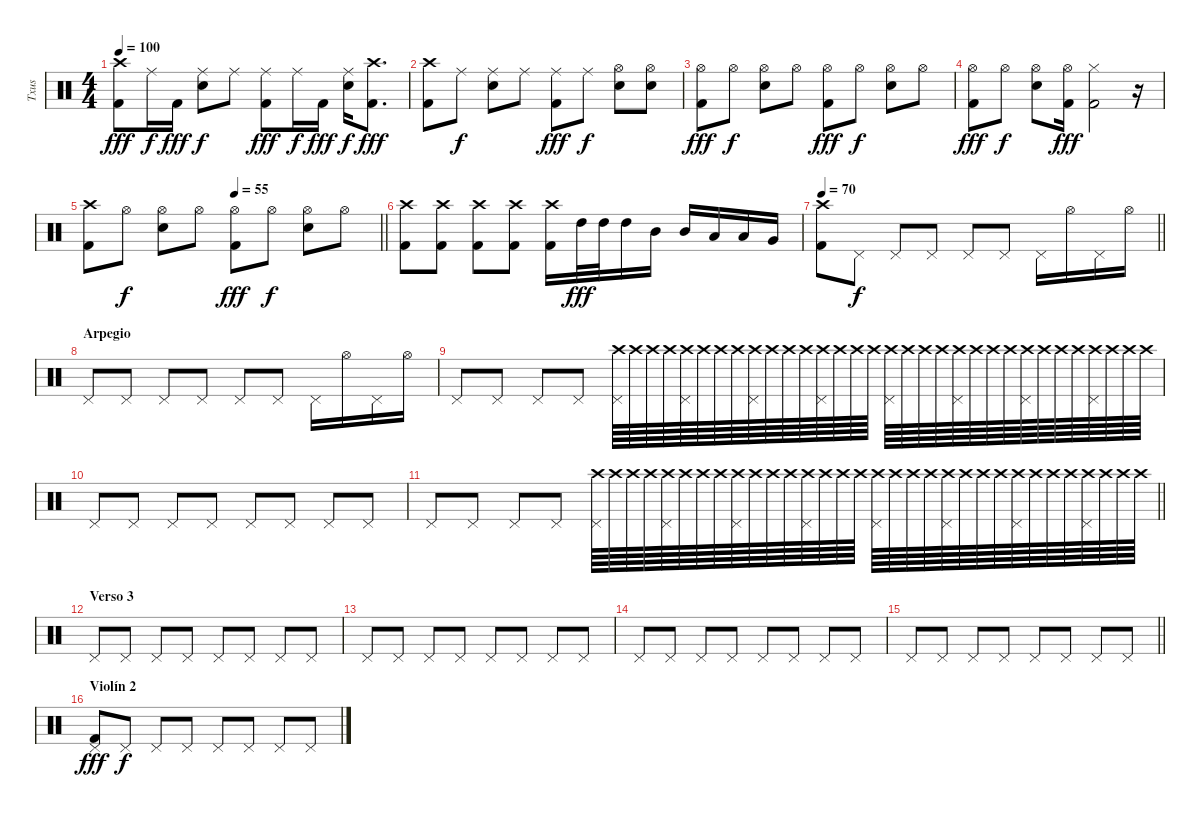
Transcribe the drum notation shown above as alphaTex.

\track ("Txus" "Txus") {instrument percussion}
\staff {score}
\articulation defaults
\ts (4 4)
\tempo 100
\clef neutral
\ks c
("Kick (hit) 2" "Crash high (hit)").8{dy fff} "Ride (middle)".16{dy f} "Kick (hit) 2".16{dy fff} ("Electric Snare (hit)" "Ride (middle)").8{dy f} "Ride (middle)".8 ("Kick (hit) 2" "Ride (middle)").8{dy fff} "Ride (middle)".16{dy f} "Kick (hit) 2".16{dy fff} ("Electric Snare (hit)" "Ride (middle)").16{dy f} ("Kick (hit) 2" "Crash high (hit)").8{d dy fff} |
("Kick (hit) 2" "Crash high (hit)").8 "Ride (middle)".8{dy f} ("Electric Snare (hit)" "Ride (middle)").8 "Ride (middle)".8 ("Kick (hit) 2" "Ride (middle)").8{dy fff} "Ride (middle)".8{dy f} ("Electric Snare (hit)" "Hi-Hat (open)").8 ("Electric Snare (hit)" "Hi-Hat (open)").8 |
("Kick (hit) 2" "Hi-Hat (open)").8{dy fff} "Hi-Hat (open)".8{dy f} ("Electric Snare (hit)" "Hi-Hat (open)").8 "Hi-Hat (open)".8 ("Kick (hit) 2" "Hi-Hat (open)").8{dy fff} "Hi-Hat (open)".8{dy f} ("Electric Snare (hit)" "Hi-Hat (open)").8 "Hi-Hat (open)".8 |
("Kick (hit) 2" "Hi-Hat (open)").8{dy fff} "Hi-Hat (open)".8{dy f} ("Electric Snare (hit)" "Hi-Hat (open)").8 ("Kick (hit) 2" "Hi-Hat (open)").16{dy fff} ("Kick (hit) 2" "Hi-Hat (closed)").2 r.16 |
\tempo (55 0.5)
\barLineRight lightlight
("Kick (hit) 2" "Crash high (hit)").8 "Hi-Hat (open)".8{dy f} ("Electric Snare (hit)" "Hi-Hat (open)").8 "Hi-Hat (open)".8 ("Kick (hit) 2" "Hi-Hat (open)").8{dy fff} "Hi-Hat (open)".8{dy f} ("Electric Snare (hit)" "Hi-Hat (open)").8 "Hi-Hat (open)".8 |
("Kick (hit) 2" "Crash high (hit)").8 ("Kick (hit) 2" "Crash high (hit)").8 ("Kick (hit) 2" "Crash high (hit)").8 ("Kick (hit) 2" "Crash high (hit)").8 ("Kick (hit) 2" "Crash high (hit)").16 "High Tom (hit)".32{dy fff} "High Tom (hit)".32 "High Tom (hit)".16 "Mid Tom (hit)".16 "Mid Tom (hit)".16 "Low Tom (hit)".16 "Low Tom (hit)".16 "Very Low Tom (hit)".16 |
\tempo 70
\barLineRight lightlight
("Kick (hit) 2" "Crash high (hit)").8 "Pedal Hi-Hat (hit)".8{dy f} "Pedal Hi-Hat (hit)".8 "Pedal Hi-Hat (hit)".8 "Pedal Hi-Hat (hit)".8 "Pedal Hi-Hat (hit)".8 "Pedal Hi-Hat (hit)".16 "Hi-Hat (open)".16 "Pedal Hi-Hat (hit)".16 "Hi-Hat (open)".16 |
\section ("" "Arpegio")
"Pedal Hi-Hat (hit)".8 "Pedal Hi-Hat (hit)".8 "Pedal Hi-Hat (hit)".8 "Pedal Hi-Hat (hit)".8 "Pedal Hi-Hat (hit)".8 "Pedal Hi-Hat (hit)".8 "Pedal Hi-Hat (hit)".16 "Hi-Hat (open)".16 "Pedal Hi-Hat (hit)".16 "Hi-Hat (open)".16 |
"Pedal Hi-Hat (hit)".8 "Pedal Hi-Hat (hit)".8 "Pedal Hi-Hat (hit)".8 "Pedal Hi-Hat (hit)".8 ("Crash high (hit)" "Pedal Hi-Hat (hit)").64{volume 1} "Crash high (hit)".64{volume 6} "Crash high (hit)".64 "Crash high (hit)".64 ("Crash high (hit)" "Pedal Hi-Hat (hit)").64 "Crash high (hit)".64 "Crash high (hit)".64 "Crash high (hit)".64 ("Crash high (hit)" "Pedal Hi-Hat (hit)").64 "Crash high (hit)".64 "Crash high (hit)".64 "Crash high (hit)".64 ("Crash high (hit)" "Pedal Hi-Hat (hit)").64 "Crash high (hit)".64 "Crash high (hit)".64 "Crash high (hit)".64 ("Crash high (hit)" "Pedal Hi-Hat (hit)").64 "Crash high (hit)".64 "Crash high (hit)".64 "Crash high (hit)".64 ("Crash high (hit)" "Pedal Hi-Hat (hit)").64 "Crash high (hit)".64 "Crash high (hit)".64 "Crash high (hit)".64 ("Crash high (hit)" "Pedal Hi-Hat (hit)").64 "Crash high (hit)".64 "Crash high (hit)".64 "Crash high (hit)".64 ("Crash high (hit)" "Pedal Hi-Hat (hit)").64 "Crash high (hit)".64 "Crash high (hit)".64 "Crash high (hit)".64 |
"Pedal Hi-Hat (hit)".8 "Pedal Hi-Hat (hit)".8 "Pedal Hi-Hat (hit)".8{volume 16} "Pedal Hi-Hat (hit)".8 "Pedal Hi-Hat (hit)".8 "Pedal Hi-Hat (hit)".8 "Pedal Hi-Hat (hit)".8 "Pedal Hi-Hat (hit)".8 |
\barLineRight lightlight "Pedal Hi-Hat (hit)".8 "Pedal Hi-Hat (hit)".8 "Pedal Hi-Hat (hit)".8 "Pedal Hi-Hat (hit)".8
("Crash high (hit)" "Pedal Hi-Hat (hit)").64{volume 1} "Crash high (hit)".64{volume 6} "Crash high (hit)".64 "Crash high (hit)".64 ("Crash high (hit)" "Pedal Hi-Hat (hit)").64 "Crash high (hit)".64 "Crash high (hit)".64 "Crash high (hit)".64 ("Crash high (hit)" "Pedal Hi-Hat (hit)").64 "Crash high (hit)".64 "Crash high (hit)".64 "Crash high (hit)".64 ("Crash high (hit)" "Pedal Hi-Hat (hit)").64 "Crash high (hit)".64 "Crash high (hit)".64 "Crash high (hit)".64 ("Crash high (hit)" "Pedal Hi-Hat (hit)").64 "Crash high (hit)".64 "Crash high (hit)".64 "Crash high (hit)".64 ("Crash high (hit)" "Pedal Hi-Hat (hit)").64 "Crash high (hit)".64 "Crash high (hit)".64 "Crash high (hit)".64 ("Crash high (hit)" "Pedal Hi-Hat (hit)").64 "Crash high (hit)".64 "Crash high (hit)".64 "Crash high (hit)".64 ("Crash high (hit)" "Pedal Hi-Hat (hit)").64 "Crash high (hit)".64 "Crash high (hit)".64 "Crash high (hit)".64 |
\section ("" "Verso 3")
"Pedal Hi-Hat (hit)".8 "Pedal Hi-Hat (hit)".8 "Pedal Hi-Hat (hit)".8{volume 16} "Pedal Hi-Hat (hit)".8 "Pedal Hi-Hat (hit)".8 "Pedal Hi-Hat (hit)".8 "Pedal Hi-Hat (hit)".8 "Pedal Hi-Hat (hit)".8 |
"Pedal Hi-Hat (hit)".8 "Pedal Hi-Hat (hit)".8 "Pedal Hi-Hat (hit)".8 "Pedal Hi-Hat (hit)".8 "Pedal Hi-Hat (hit)".8 "Pedal Hi-Hat (hit)".8 "Pedal Hi-Hat (hit)".8 "Pedal Hi-Hat (hit)".8 |
"Pedal Hi-Hat (hit)".8 "Pedal Hi-Hat (hit)".8 "Pedal Hi-Hat (hit)".8 "Pedal Hi-Hat (hit)".8 "Pedal Hi-Hat (hit)".8 "Pedal Hi-Hat (hit)".8 "Pedal Hi-Hat (hit)".8 "Pedal Hi-Hat (hit)".8 |
\barLineRight lightlight "Pedal Hi-Hat (hit)".8 "Pedal Hi-Hat (hit)".8 "Pedal Hi-Hat (hit)".8 "Pedal Hi-Hat (hit)".8 "Pedal Hi-Hat (hit)".8 "Pedal Hi-Hat (hit)".8 "Pedal Hi-Hat (hit)".8 "Pedal Hi-Hat (hit)".8
|
\section ("" "Violín 2")
("Kick (hit) 2" "Pedal Hi-Hat (hit)").8{dy fff} "Pedal Hi-Hat (hit)".8{dy f} "Pedal Hi-Hat (hit)".8 "Pedal Hi-Hat (hit)".8 "Pedal Hi-Hat (hit)".8 "Pedal Hi-Hat (hit)".8 "Pedal Hi-Hat (hit)".8 "Pedal Hi-Hat (hit)".8
